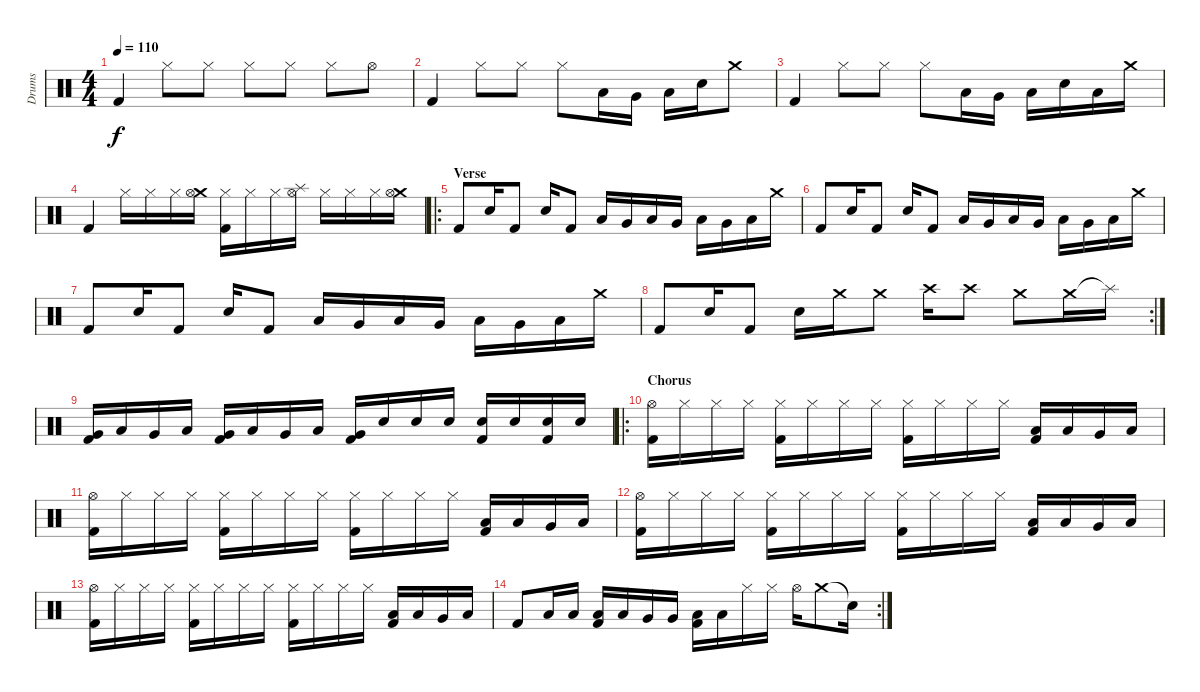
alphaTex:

\track ("Drums" "Drums") {instrument percussion}
\staff {score}
\articulation defaults
\ts (4 4)
\tempo 110
\clef neutral
\ks c "Kick (hit) 2".4{dy f} "Hi-Hat (closed)".8 "Hi-Hat (closed)".8 "Hi-Hat (closed)".8 "Hi-Hat (closed)".8 "Hi-Hat (closed)".8 "Hi-Hat (open)".8
|
"Kick (hit) 2".4 "Hi-Hat (closed)".8 "Hi-Hat (closed)".8 "Hi-Hat (closed)".8 "Low Tom (hit)".16 "Very Low Tom (hit)".16 "Low Floor Tom (hit)".16 "Snare (hit) 2".16 "Crash medium (hit)".8 |
"Kick (hit) 2".4 "Hi-Hat (closed)".8 "Hi-Hat (closed)".8 "Hi-Hat (closed)".8 "Low Tom (hit)".16 "Very Low Tom (hit)".16 "Low Floor Tom (hit)".16 "Snare (hit) 2".16 "Low Floor Tom (hit)".16 "Crash medium (hit)".16 |
"Kick (hit) 2".4 "Hi-Hat (closed)".16 "Hi-Hat (closed)".16 "Hi-Hat (closed)".16 ("Crash medium (hit)" "Hi-Hat (open)").16 ("Hi-Hat (closed)" "Kick (hit) 2").16 "Hi-Hat (closed)".16 "Hi-Hat (closed)".16 ("Splash (hit)" "Hi-Hat (open)").16 "Hi-Hat (closed)".16 "Hi-Hat (closed)".16 "Hi-Hat (closed)".16 ("Crash medium (hit)" "Hi-Hat (open)").16 |
\ro
\section ("" "Verse")
"Kick (hit) 2".8 "Snare (hit) 2".16 "Kick (hit) 2".8 "Snare (hit) 2".16 "Kick (hit) 2".8 "Low Tom (hit)".16 "Very Low Tom (hit)".16 "Low Floor Tom (hit)".16 "Very Low Tom (hit)".16 "Low Floor Tom (hit)".16 "Very Low Tom (hit)".16 "Low Tom (hit)".16 "Crash medium (hit)".16 |
"Kick (hit) 2".8 "Snare (hit) 2".16 "Kick (hit) 2".8 "Snare (hit) 2".16 "Kick (hit) 2".8 "Low Tom (hit)".16 "Very Low Tom (hit)".16 "Low Floor Tom (hit)".16 "Very Low Tom (hit)".16 "Low Floor Tom (hit)".16 "Very Low Tom (hit)".16 "Low Tom (hit)".16 "Crash medium (hit)".16 |
"Kick (hit) 2".8 "Snare (hit) 2".16 "Kick (hit) 2".8 "Snare (hit) 2".16 "Kick (hit) 2".8 "Low Tom (hit)".16 "Very Low Tom (hit)".16 "Low Floor Tom (hit)".16 "Very Low Tom (hit)".16 "Low Floor Tom (hit)".16 "Very Low Tom (hit)".16 "Low Tom (hit)".16 "Crash medium (hit)".16 |
\rc 2 "Kick (hit) 2".8 "Snare (hit) 2".16 "Kick (hit) 2".8 "Snare (hit) 2".16 "Crash medium (hit)".16 "Crash medium (hit)".8 "Crash high (hit)".16 "Crash high (hit)".8 "Crash medium (hit)".8 "Crash medium (hit)".16 "Splash (hit)"{t}.16
|
("Very Low Tom (hit)" "Kick (hit) 2").16 "Low Tom (hit)".16 "Very Low Tom (hit)".16 "Low Floor Tom (hit)".16 ("Very Low Tom (hit)" "Kick (hit) 2").16 "Low Tom (hit)".16 "Very Low Tom (hit)".16 "Low Floor Tom (hit)".16 ("Very Low Tom (hit)" "Kick (hit) 2").16 "Snare (hit) 2".16 "Snare (hit) 2".16 "Snare (hit) 2".16 ("Snare (hit) 2" "Kick (hit) 2").16 "Snare (hit) 2".16 ("Snare (hit) 2" "Kick (hit) 2").16 "Snare (hit) 2".16 |
\ro
\section ("" "Chorus")
("Hi-Hat (open)" "Kick (hit) 2").16 "Hi-Hat (closed)".16 "Hi-Hat (closed)".16 "Hi-Hat (closed)".16 ("Hi-Hat (closed)" "Kick (hit) 2").16 "Hi-Hat (closed)".16 "Hi-Hat (closed)".16 "Hi-Hat (closed)".16 ("Hi-Hat (closed)" "Kick (hit) 2").16 "Hi-Hat (closed)".16 "Hi-Hat (closed)".16 "Hi-Hat (closed)".16 ("Low Floor Tom (hit)" "Kick (hit) 2").16 "Low Tom (hit)".16 "Very Low Tom (hit)".16 "Low Floor Tom (hit)".16 |
("Hi-Hat (open)" "Kick (hit) 2").16 "Hi-Hat (closed)".16 "Hi-Hat (closed)".16 "Hi-Hat (closed)".16 ("Hi-Hat (closed)" "Kick (hit) 2").16 "Hi-Hat (closed)".16 "Hi-Hat (closed)".16 "Hi-Hat (closed)".16 ("Hi-Hat (closed)" "Kick (hit) 2").16 "Hi-Hat (closed)".16 "Hi-Hat (closed)".16 "Hi-Hat (closed)".16 ("Low Floor Tom (hit)" "Kick (hit) 2").16 "Low Tom (hit)".16 "Very Low Tom (hit)".16 "Low Floor Tom (hit)".16 |
("Hi-Hat (open)" "Kick (hit) 2").16 "Hi-Hat (closed)".16 "Hi-Hat (closed)".16 "Hi-Hat (closed)".16 ("Hi-Hat (closed)" "Kick (hit) 2").16 "Hi-Hat (closed)".16 "Hi-Hat (closed)".16 "Hi-Hat (closed)".16 ("Hi-Hat (closed)" "Kick (hit) 2").16 "Hi-Hat (closed)".16 "Hi-Hat (closed)".16 "Hi-Hat (closed)".16 ("Low Floor Tom (hit)" "Kick (hit) 2").16 "Low Tom (hit)".16 "Very Low Tom (hit)".16 "Low Floor Tom (hit)".16 |
("Hi-Hat (open)" "Kick (hit) 2").16 "Hi-Hat (closed)".16 "Hi-Hat (closed)".16 "Hi-Hat (closed)".16 ("Hi-Hat (closed)" "Kick (hit) 2").16 "Hi-Hat (closed)".16 "Hi-Hat (closed)".16 "Hi-Hat (closed)".16 ("Hi-Hat (closed)" "Kick (hit) 2").16 "Hi-Hat (closed)".16 "Hi-Hat (closed)".16 "Hi-Hat (closed)".16 ("Low Floor Tom (hit)" "Kick (hit) 2").16 "Low Tom (hit)".16 "Very Low Tom (hit)".16 "Low Floor Tom (hit)".16 |
\rc 2 "Kick (hit) 2".8 "Low Floor Tom (hit)".16 "Low Floor Tom (hit)".16
("Low Tom (hit)" "Kick (hit) 2").16 "Low Tom (hit)".16 "Very Low Tom (hit)".16 "Very Low Tom (hit)".16 ("Low Floor Tom (hit)" "Kick (hit) 2").16 "Low Floor Tom (hit)".16 "Hi-Hat (closed)".16 "Hi-Hat (closed)".16 "Hi-Hat (open)".16 "Crash medium (hit)".8 "Snare (hit)"{t}.16
